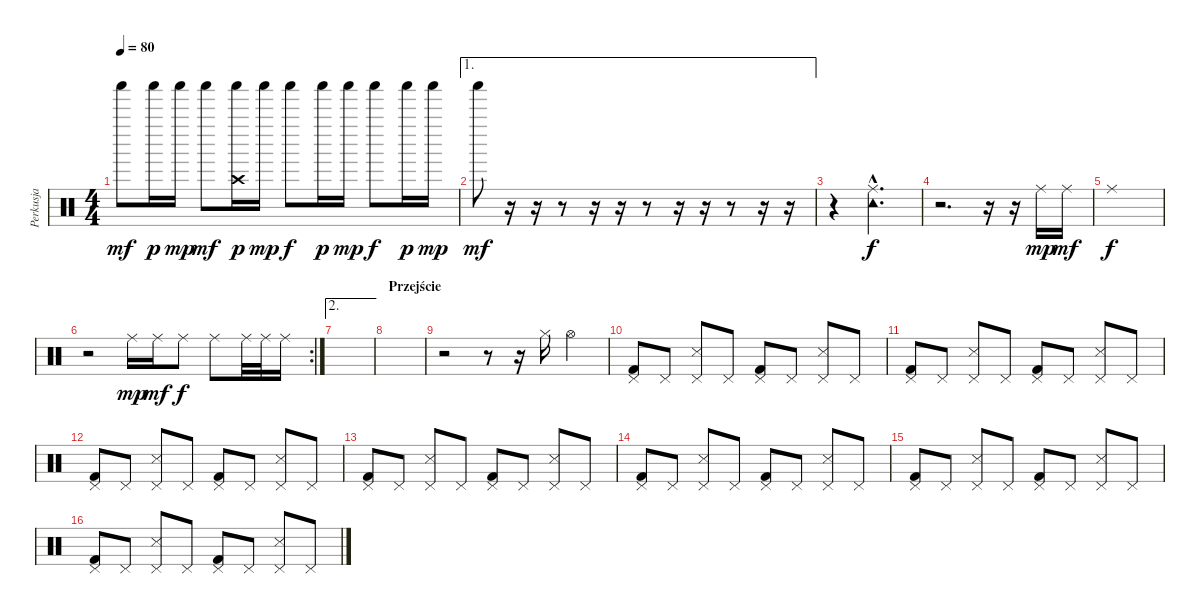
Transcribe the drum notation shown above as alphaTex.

\track ("Perkusja" "Perkusja") {instrument percussion}
\staff {score}
\articulation defaults
\ts (4 4)
\tempo 80
\clef neutral
\ks c "Shaker (hit)".8{dy mf} "Shaker (hit)".16{dy p} "Shaker (hit)".16{dy mp} "Shaker (hit)".8{dy mf}
("Crash high (hit)" "Shaker (hit)").16{dy p} "Shaker (hit)".16{dy mp} "Shaker (hit)".8{dy f} "Shaker (hit)".16{dy p} "Shaker (hit)".16{dy mp} "Shaker (hit)".8{dy f} "Shaker (hit)".16{dy p} "Shaker (hit)".16{dy mp} |
\ae 1 "Shaker (hit)".8{dy mf}
r.16 r.16 r.8 r.16 r.16 r.8 r.16 r.16 r.8 r.16 r.16 |
r.4 ("Tambourine (hit)"{hac} "Ride (middle)"{hac}).2{d dy f} |
r.2{d} r.16 r.16 "Ride (middle)".16{dy mp} "Ride (middle)".16{dy mf} |
"Ride (middle)".1{dy f} |
\rc 2
r.2 "Ride (middle)".16{dy mp} "Ride (middle)".16{dy mf} "Ride (middle)".8{dy f} "Ride (middle)".8 "Ride (middle)".32 "Ride (middle)".32 "Ride (middle)".16 |
\ae 2
|
\section ("" "Przejście")
|
r.2 r.8 r.16 "Hi-Hat (closed)".16 "Hi-Hat (open)".4 |
("Pedal Hi-Hat (hit)" "Kick (hit) 2").8 "Pedal Hi-Hat (hit)".8 ("Pedal Hi-Hat (hit)" "Snare (side stick) 3").8 "Pedal Hi-Hat (hit)".8 ("Pedal Hi-Hat (hit)" "Kick (hit) 2").8 "Pedal Hi-Hat (hit)".8 ("Pedal Hi-Hat (hit)" "Snare (side stick) 3").8 "Pedal Hi-Hat (hit)".8 |
("Pedal Hi-Hat (hit)" "Kick (hit) 2").8 "Pedal Hi-Hat (hit)".8 ("Pedal Hi-Hat (hit)" "Snare (side stick) 3").8 "Pedal Hi-Hat (hit)".8 ("Pedal Hi-Hat (hit)" "Kick (hit) 2").8 "Pedal Hi-Hat (hit)".8 ("Pedal Hi-Hat (hit)" "Snare (side stick) 3").8 "Pedal Hi-Hat (hit)".8 |
("Pedal Hi-Hat (hit)" "Kick (hit) 2").8 "Pedal Hi-Hat (hit)".8 ("Pedal Hi-Hat (hit)" "Snare (side stick) 3").8 "Pedal Hi-Hat (hit)".8 ("Pedal Hi-Hat (hit)" "Kick (hit) 2").8 "Pedal Hi-Hat (hit)".8 ("Pedal Hi-Hat (hit)" "Snare (side stick) 3").8 "Pedal Hi-Hat (hit)".8 |
("Pedal Hi-Hat (hit)" "Kick (hit) 2").8 "Pedal Hi-Hat (hit)".8 ("Pedal Hi-Hat (hit)" "Snare (side stick) 3").8 "Pedal Hi-Hat (hit)".8 ("Pedal Hi-Hat (hit)" "Kick (hit) 2").8 "Pedal Hi-Hat (hit)".8 ("Pedal Hi-Hat (hit)" "Snare (side stick) 3").8 "Pedal Hi-Hat (hit)".8 |
("Pedal Hi-Hat (hit)" "Kick (hit) 2").8 "Pedal Hi-Hat (hit)".8 ("Pedal Hi-Hat (hit)" "Snare (side stick) 3").8 "Pedal Hi-Hat (hit)".8 ("Pedal Hi-Hat (hit)" "Kick (hit) 2").8 "Pedal Hi-Hat (hit)".8 ("Pedal Hi-Hat (hit)" "Snare (side stick) 3").8 "Pedal Hi-Hat (hit)".8 |
("Pedal Hi-Hat (hit)" "Kick (hit) 2").8 "Pedal Hi-Hat (hit)".8 ("Pedal Hi-Hat (hit)" "Snare (side stick) 3").8 "Pedal Hi-Hat (hit)".8 ("Pedal Hi-Hat (hit)" "Kick (hit) 2").8 "Pedal Hi-Hat (hit)".8 ("Pedal Hi-Hat (hit)" "Snare (side stick) 3").8 "Pedal Hi-Hat (hit)".8 |
("Pedal Hi-Hat (hit)" "Kick (hit) 2").8 "Pedal Hi-Hat (hit)".8 ("Pedal Hi-Hat (hit)" "Snare (side stick) 3").8 "Pedal Hi-Hat (hit)".8 ("Pedal Hi-Hat (hit)" "Kick (hit) 2").8 "Pedal Hi-Hat (hit)".8 ("Pedal Hi-Hat (hit)" "Snare (side stick) 3").8 "Pedal Hi-Hat (hit)".8
